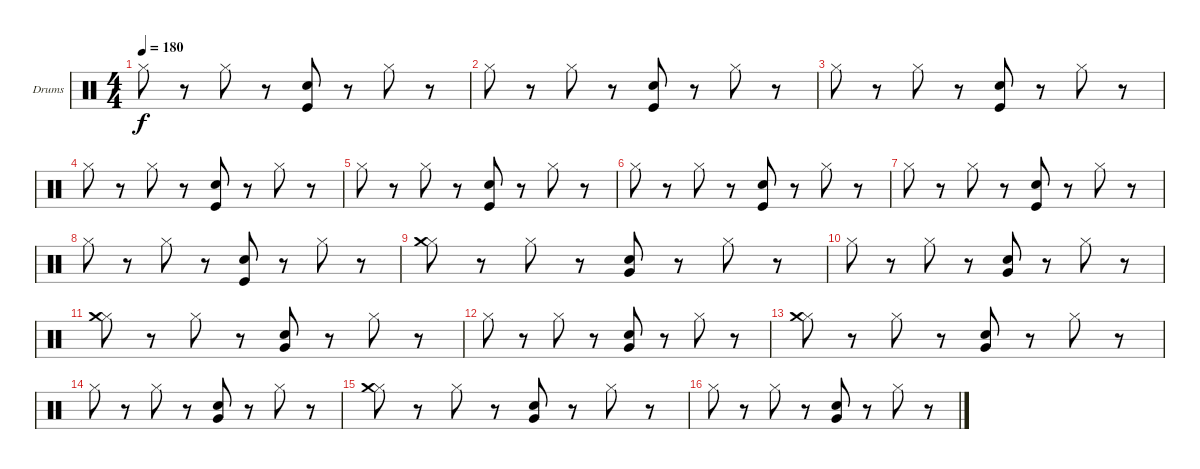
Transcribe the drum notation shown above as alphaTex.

\bracketExtendMode groupsimilarinstruments
\firstSystemTrackNameOrientation horizontal
\otherSystemsTrackNameOrientation horizontal
\track ("Drumkit" "Drums") {instrument percussion}
\staff {score}
\articulation defaults
\ts (4 4)
\tempo 180
\clef neutral
\ks c "Hi-Hat (closed)".8{dy f}
r.8 "Hi-Hat (closed)".8 r.8 ("Snare (hit) 2" "Kick (hit)").8 r.8 "Hi-Hat (closed)".8 r.8 |
"Hi-Hat (closed)".8 r.8 "Hi-Hat (closed)".8 r.8 ("Snare (hit) 2" "Kick (hit)").8 r.8 "Hi-Hat (closed)".8 r.8 |
"Hi-Hat (closed)".8 r.8 "Hi-Hat (closed)".8 r.8 ("Snare (hit) 2" "Kick (hit)").8 r.8 "Hi-Hat (closed)".8 r.8 |
"Hi-Hat (closed)".8 r.8 "Hi-Hat (closed)".8 r.8 ("Snare (hit) 2" "Kick (hit)").8 r.8 "Hi-Hat (closed)".8 r.8 |
"Hi-Hat (closed)".8 r.8 "Hi-Hat (closed)".8 r.8 ("Snare (hit) 2" "Kick (hit)").8 r.8 "Hi-Hat (closed)".8 r.8 |
"Hi-Hat (closed)".8 r.8 "Hi-Hat (closed)".8 r.8 ("Snare (hit) 2" "Kick (hit)").8 r.8 "Hi-Hat (closed)".8 r.8 |
"Hi-Hat (closed)".8 r.8 "Hi-Hat (closed)".8 r.8 ("Snare (hit) 2" "Kick (hit)").8 r.8 "Hi-Hat (closed)".8 r.8 |
"Hi-Hat (closed)".8 r.8 "Hi-Hat (closed)".8 r.8 ("Snare (hit) 2" "Kick (hit)").8 r.8 "Hi-Hat (closed)".8 r.8 |
("Hi-Hat (closed)" "Crash medium (hit)").8 r.8 "Hi-Hat (closed)".8 r.8 ("Snare (hit) 2" "Very Low Tom (hit)").8 r.8 "Hi-Hat (closed)".8 r.8 |
"Hi-Hat (closed)".8 r.8 "Hi-Hat (closed)".8 r.8 ("Snare (hit) 2" "Very Low Tom (hit)").8 r.8 "Hi-Hat (closed)".8 r.8 |
("Hi-Hat (closed)" "Crash medium (hit)").8 r.8 "Hi-Hat (closed)".8 r.8 ("Snare (hit) 2" "Very Low Tom (hit)").8 r.8 "Hi-Hat (closed)".8 r.8 |
"Hi-Hat (closed)".8 r.8 "Hi-Hat (closed)".8 r.8 ("Snare (hit) 2" "Very Low Tom (hit)").8 r.8 "Hi-Hat (closed)".8 r.8 |
("Hi-Hat (closed)" "Crash medium (hit)").8 r.8 "Hi-Hat (closed)".8 r.8 ("Snare (hit) 2" "Very Low Tom (hit)").8 r.8 "Hi-Hat (closed)".8 r.8 |
"Hi-Hat (closed)".8 r.8 "Hi-Hat (closed)".8 r.8 ("Snare (hit) 2" "Very Low Tom (hit)").8 r.8 "Hi-Hat (closed)".8 r.8 |
("Hi-Hat (closed)" "Crash medium (hit)").8 r.8 "Hi-Hat (closed)".8 r.8 ("Snare (hit) 2" "Very Low Tom (hit)").8 r.8 "Hi-Hat (closed)".8 r.8 |
"Hi-Hat (closed)".8 r.8 "Hi-Hat (closed)".8 r.8 ("Snare (hit) 2" "Very Low Tom (hit)").8 r.8 "Hi-Hat (closed)".8 r.8
